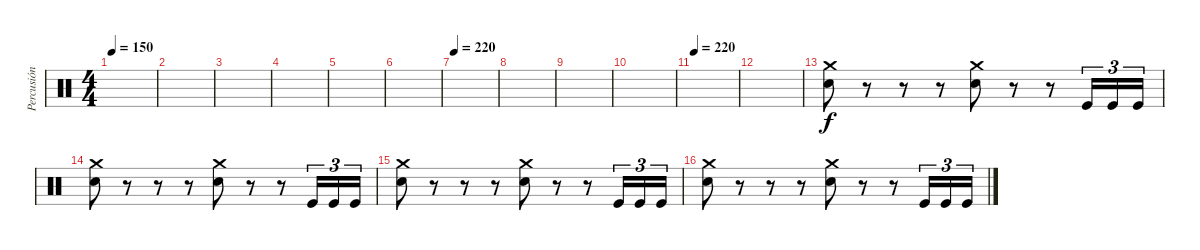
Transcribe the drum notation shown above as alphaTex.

\track ("Percusión" "Percusión") {instrument percussion}
\staff {score}
\articulation defaults
\ts (4 4)
\tempo 150
\clef neutral
\ks c
|
|
|
|
|
|
\tempo 220
|
|
|
|
\tempo 220
|
|
("Crash medium (hit)" "Snare (hit) 2").8 r.8 r.8 r.8 ("Crash medium (hit)" "Snare (hit) 2").8 r.8 r.8 "Kick (hit)".16{tu (3 2)} "Kick (hit)".16{tu (3 2)} "Kick (hit)".16{tu (3 2)} |
("Crash medium (hit)" "Snare (hit) 2").8 r.8 r.8 r.8 ("Crash medium (hit)" "Snare (hit) 2").8 r.8 r.8 "Kick (hit)".16{tu (3 2)} "Kick (hit)".16{tu (3 2)} "Kick (hit)".16{tu (3 2)} |
("Crash medium (hit)" "Snare (hit) 2").8 r.8 r.8 r.8 ("Crash medium (hit)" "Snare (hit) 2").8 r.8 r.8 "Kick (hit)".16{tu (3 2)} "Kick (hit)".16{tu (3 2)} "Kick (hit)".16{tu (3 2)} |
("Crash medium (hit)" "Snare (hit) 2").8 r.8 r.8 r.8 ("Crash medium (hit)" "Snare (hit) 2").8 r.8 r.8 "Kick (hit)".16{tu (3 2)} "Kick (hit)".16{tu (3 2)} "Kick (hit)".16{tu (3 2)}
